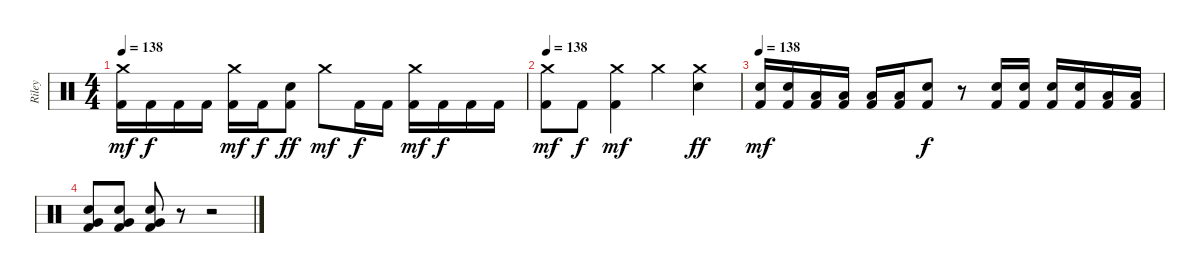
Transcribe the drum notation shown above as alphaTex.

\track ("Riley" "Riley") {instrument percussion}
\staff {score}
\articulation defaults
\ts (4 4)
\tempo 138
\clef neutral
\ks c
("Crash medium (hit)" "Kick (hit) 2").16{dy mf} "Kick (hit) 2".16{dy f} "Kick (hit) 2".16 "Kick (hit) 2".16 ("Crash medium (hit)" "Kick (hit) 2").16{dy mf} "Kick (hit) 2".16{dy f} ("Electric Snare (hit)" "Kick (hit) 2").8{dy ff} "Crash medium (hit)".8{dy mf} "Kick (hit) 2".16{dy f} "Kick (hit) 2".16 ("Crash medium (hit)" "Kick (hit) 2").16{dy mf} "Kick (hit) 2".16{dy f} "Kick (hit) 2".16 "Kick (hit) 2".16 |
\tempo 138
("Crash medium (hit)" "Kick (hit) 2").8{dy mf} "Kick (hit) 2".8{dy f} ("Crash medium (hit)" "Kick (hit) 2").4{dy mf} "Crash medium (hit)".4 ("Crash medium (hit)" "Electric Snare (hit)").4{dy ff} |
\tempo 138
("Electric Snare (hit)" "Kick (hit) 2").16{dy mf} ("Electric Snare (hit)" "Kick (hit) 2").16 ("Low Tom (hit)" "Kick (hit) 2").16 ("Low Tom (hit)" "Kick (hit) 2").16 ("Low Tom (hit)" "Kick (hit) 2").16 ("Low Tom (hit)" "Kick (hit) 2").16 ("Electric Snare (hit)" "Kick (hit) 2").8{dy f} r.8 ("Electric Snare (hit)" "Kick (hit) 2").16 ("Electric Snare (hit)" "Kick (hit) 2").16 ("Electric Snare (hit)" "Kick (hit) 2").16 ("Electric Snare (hit)" "Kick (hit) 2").16 ("Low Tom (hit)" "Kick (hit) 2").16 ("Low Tom (hit)" "Kick (hit) 2").16 |
("Very Low Tom (hit)" "Electric Snare (hit)" "Kick (hit) 2").8 ("Very Low Tom (hit)" "Electric Snare (hit)" "Kick (hit) 2").8 ("Very Low Tom (hit)" "Electric Snare (hit)" "Kick (hit) 2").8 r.8 r.2
